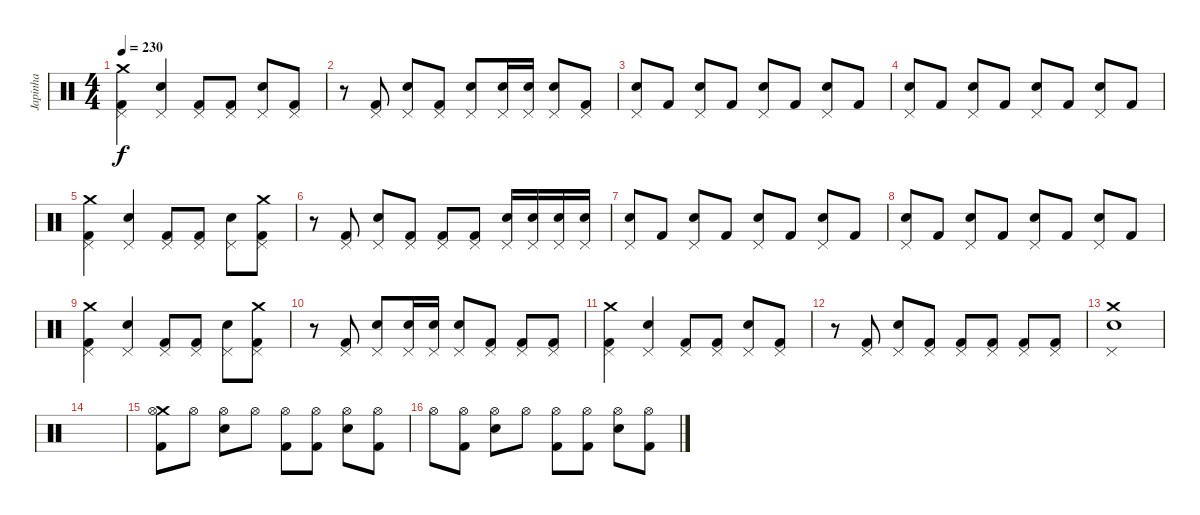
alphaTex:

\track ("Japinha" "Japinha") {instrument percussion}
\staff {score}
\articulation defaults
\ts (4 4)
\tempo 230
\clef neutral
\ks c
("Crash medium (hit)" "Pedal Hi-Hat (hit)" "Kick (hit) 2").4{dy f} ("Pedal Hi-Hat (hit)" "Snare (hit) 2").4 ("Pedal Hi-Hat (hit)" "Kick (hit) 2").8 ("Pedal Hi-Hat (hit)" "Kick (hit) 2").8 ("Pedal Hi-Hat (hit)" "Snare (hit) 2").8 ("Pedal Hi-Hat (hit)" "Kick (hit) 2").8 |
r.8 ("Pedal Hi-Hat (hit)" "Kick (hit) 2").8 ("Pedal Hi-Hat (hit)" "Snare (hit) 2").8 ("Pedal Hi-Hat (hit)" "Kick (hit) 2").8 ("Pedal Hi-Hat (hit)" "Snare (hit) 2").8 ("Pedal Hi-Hat (hit)" "Snare (hit) 2").16 ("Pedal Hi-Hat (hit)" "Snare (hit) 2").16 ("Pedal Hi-Hat (hit)" "Snare (hit) 2").8 ("Pedal Hi-Hat (hit)" "Kick (hit) 2").8 |
("Pedal Hi-Hat (hit)" "Snare (hit) 2").8 "Kick (hit) 2".8 ("Pedal Hi-Hat (hit)" "Snare (hit) 2").8 "Kick (hit) 2".8 ("Pedal Hi-Hat (hit)" "Snare (hit) 2").8 "Kick (hit) 2".8 ("Pedal Hi-Hat (hit)" "Snare (hit) 2").8 "Kick (hit) 2".8 |
("Pedal Hi-Hat (hit)" "Snare (hit) 2").8 "Kick (hit) 2".8 ("Pedal Hi-Hat (hit)" "Snare (hit) 2").8 "Kick (hit) 2".8 ("Pedal Hi-Hat (hit)" "Snare (hit) 2").8 "Kick (hit) 2".8 ("Pedal Hi-Hat (hit)" "Snare (hit) 2").8 "Kick (hit) 2".8 |
("Crash medium (hit)" "Pedal Hi-Hat (hit)" "Kick (hit) 2").4 ("Pedal Hi-Hat (hit)" "Snare (hit) 2").4 ("Pedal Hi-Hat (hit)" "Kick (hit) 2").8 ("Pedal Hi-Hat (hit)" "Kick (hit) 2").8 ("Pedal Hi-Hat (hit)" "Snare (hit) 2").8 ("Crash medium (hit)" "Pedal Hi-Hat (hit)" "Kick (hit) 2").8 |
r.8 ("Pedal Hi-Hat (hit)" "Kick (hit) 2").8 ("Pedal Hi-Hat (hit)" "Snare (hit) 2").8 ("Pedal Hi-Hat (hit)" "Kick (hit) 2").8 ("Pedal Hi-Hat (hit)" "Kick (hit) 2").8 ("Pedal Hi-Hat (hit)" "Kick (hit) 2").8 ("Pedal Hi-Hat (hit)" "Snare (hit) 2").16 ("Pedal Hi-Hat (hit)" "Snare (hit) 2").16 ("Pedal Hi-Hat (hit)" "Snare (hit) 2").16 ("Pedal Hi-Hat (hit)" "Snare (hit) 2").16 |
("Pedal Hi-Hat (hit)" "Snare (hit) 2").8 "Kick (hit) 2".8 ("Pedal Hi-Hat (hit)" "Snare (hit) 2").8 "Kick (hit) 2".8 ("Pedal Hi-Hat (hit)" "Snare (hit) 2").8 "Kick (hit) 2".8 ("Pedal Hi-Hat (hit)" "Snare (hit) 2").8 "Kick (hit) 2".8 |
("Pedal Hi-Hat (hit)" "Snare (hit) 2").8 "Kick (hit) 2".8 ("Pedal Hi-Hat (hit)" "Snare (hit) 2").8 "Kick (hit) 2".8 ("Pedal Hi-Hat (hit)" "Snare (hit) 2").8 "Kick (hit) 2".8 ("Pedal Hi-Hat (hit)" "Snare (hit) 2").8 "Kick (hit) 2".8 |
("Crash medium (hit)" "Pedal Hi-Hat (hit)" "Kick (hit) 2").4 ("Pedal Hi-Hat (hit)" "Snare (hit) 2").4 ("Pedal Hi-Hat (hit)" "Kick (hit) 2").8 ("Pedal Hi-Hat (hit)" "Kick (hit) 2").8 ("Pedal Hi-Hat (hit)" "Snare (hit) 2").8 ("Crash medium (hit)" "Pedal Hi-Hat (hit)" "Kick (hit) 2").8 |
r.8 ("Pedal Hi-Hat (hit)" "Kick (hit) 2").8 ("Pedal Hi-Hat (hit)" "Snare (hit) 2").8 ("Pedal Hi-Hat (hit)" "Snare (hit) 2").16 ("Pedal Hi-Hat (hit)" "Snare (hit) 2").16 ("Pedal Hi-Hat (hit)" "Snare (hit) 2").8 ("Pedal Hi-Hat (hit)" "Kick (hit) 2").8 ("Pedal Hi-Hat (hit)" "Kick (hit) 2").8 ("Pedal Hi-Hat (hit)" "Kick (hit) 2").8 |
("Crash medium (hit)" "Pedal Hi-Hat (hit)" "Kick (hit) 2").4 ("Pedal Hi-Hat (hit)" "Snare (hit) 2").4 ("Pedal Hi-Hat (hit)" "Kick (hit) 2").8 ("Pedal Hi-Hat (hit)" "Kick (hit) 2").8 ("Pedal Hi-Hat (hit)" "Snare (hit) 2").8 ("Pedal Hi-Hat (hit)" "Kick (hit) 2").8 |
r.8 ("Pedal Hi-Hat (hit)" "Kick (hit) 2").8 ("Pedal Hi-Hat (hit)" "Snare (hit) 2").8 ("Pedal Hi-Hat (hit)" "Kick (hit) 2").8 ("Pedal Hi-Hat (hit)" "Kick (hit) 2").8 ("Pedal Hi-Hat (hit)" "Kick (hit) 2").8 ("Pedal Hi-Hat (hit)" "Kick (hit) 2").8 ("Pedal Hi-Hat (hit)" "Kick (hit) 2").8 |
("Crash medium (hit)" "Pedal Hi-Hat (hit)" "Snare (hit) 2").1 |
|
("Crash medium (hit)" "Hi-Hat (open)" "Kick (hit) 2").8 "Hi-Hat (open)".8 ("Hi-Hat (open)" "Snare (hit) 2").8 "Hi-Hat (open)".8 ("Hi-Hat (open)" "Kick (hit) 2").8 ("Hi-Hat (open)" "Kick (hit) 2").8 ("Hi-Hat (open)" "Snare (hit) 2").8 ("Hi-Hat (open)" "Kick (hit) 2").8 |
"Hi-Hat (open)".8 ("Hi-Hat (open)" "Kick (hit) 2").8 ("Hi-Hat (open)" "Snare (hit) 2").8 "Hi-Hat (open)".8 ("Hi-Hat (open)" "Kick (hit) 2").8 ("Hi-Hat (open)" "Kick (hit) 2").8 ("Hi-Hat (open)" "Snare (hit) 2").8 ("Hi-Hat (open)" "Kick (hit) 2").8
